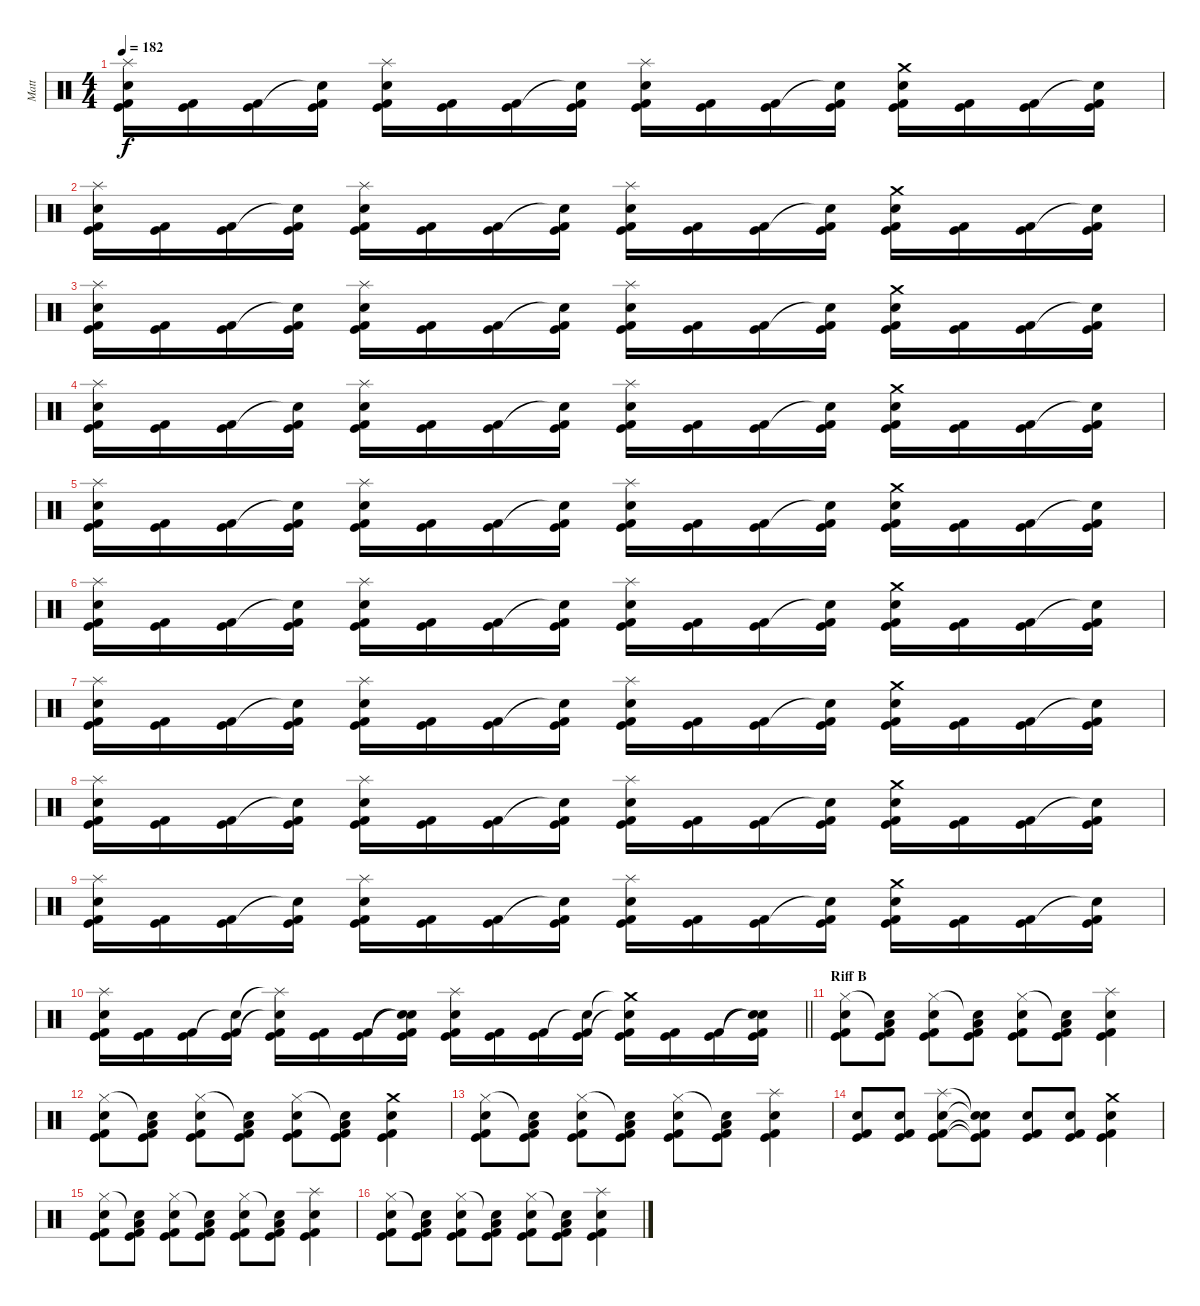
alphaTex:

\track ("Matt" "Matt") {instrument percussion}
\staff {score}
\articulation defaults
\ts (4 4)
\tempo 182
\clef neutral
\ks c
("Splash (hit)" "Electric Snare (hit)" "Kick (hit)" "Kick (hit) 2").16{dy f} ("Kick (hit)" "Kick (hit) 2").16 ("Kick (hit)" "Kick (hit) 2").16 ("Snare (hit)"{t} "Kick (hit)" "Kick (hit) 2").16 ("Splash (hit)" "Electric Snare (hit)" "Kick (hit)" "Kick (hit) 2").16 ("Kick (hit)" "Kick (hit) 2").16 ("Kick (hit)" "Kick (hit) 2").16 ("Snare (hit)"{t} "Kick (hit)" "Kick (hit) 2").16 ("Splash (hit)" "Electric Snare (hit)" "Kick (hit)" "Kick (hit) 2").16 ("Kick (hit)" "Kick (hit) 2").16 ("Kick (hit)" "Kick (hit) 2").16 ("Snare (hit)"{t} "Kick (hit)" "Kick (hit) 2").16 ("Crash medium (hit)" "Electric Snare (hit)" "Kick (hit)" "Kick (hit) 2").16 ("Kick (hit)" "Kick (hit) 2").16 ("Kick (hit)" "Kick (hit) 2").16 ("Snare (hit)"{t} "Kick (hit)" "Kick (hit) 2").16 |
("Splash (hit)" "Electric Snare (hit)" "Kick (hit)" "Kick (hit) 2").16 ("Kick (hit)" "Kick (hit) 2").16 ("Kick (hit)" "Kick (hit) 2").16 ("Snare (hit)"{t} "Kick (hit)" "Kick (hit) 2").16 ("Splash (hit)" "Electric Snare (hit)" "Kick (hit)" "Kick (hit) 2").16 ("Kick (hit)" "Kick (hit) 2").16 ("Kick (hit)" "Kick (hit) 2").16 ("Snare (hit)"{t} "Kick (hit)" "Kick (hit) 2").16 ("Splash (hit)" "Electric Snare (hit)" "Kick (hit)" "Kick (hit) 2").16 ("Kick (hit)" "Kick (hit) 2").16 ("Kick (hit)" "Kick (hit) 2").16 ("Snare (hit)"{t} "Kick (hit)" "Kick (hit) 2").16 ("Crash medium (hit)" "Electric Snare (hit)" "Kick (hit)" "Kick (hit) 2").16 ("Kick (hit)" "Kick (hit) 2").16 ("Kick (hit)" "Kick (hit) 2").16 ("Snare (hit)"{t} "Kick (hit)" "Kick (hit) 2").16 |
("Splash (hit)" "Electric Snare (hit)" "Kick (hit)" "Kick (hit) 2").16 ("Kick (hit)" "Kick (hit) 2").16 ("Kick (hit)" "Kick (hit) 2").16 ("Snare (hit)"{t} "Kick (hit)" "Kick (hit) 2").16 ("Splash (hit)" "Electric Snare (hit)" "Kick (hit)" "Kick (hit) 2").16 ("Kick (hit)" "Kick (hit) 2").16 ("Kick (hit)" "Kick (hit) 2").16 ("Snare (hit)"{t} "Kick (hit)" "Kick (hit) 2").16 ("Splash (hit)" "Electric Snare (hit)" "Kick (hit)" "Kick (hit) 2").16 ("Kick (hit)" "Kick (hit) 2").16 ("Kick (hit)" "Kick (hit) 2").16 ("Snare (hit)"{t} "Kick (hit)" "Kick (hit) 2").16 ("Crash medium (hit)" "Electric Snare (hit)" "Kick (hit)" "Kick (hit) 2").16 ("Kick (hit)" "Kick (hit) 2").16 ("Kick (hit)" "Kick (hit) 2").16 ("Snare (hit)"{t} "Kick (hit)" "Kick (hit) 2").16 |
("Splash (hit)" "Electric Snare (hit)" "Kick (hit)" "Kick (hit) 2").16 ("Kick (hit)" "Kick (hit) 2").16 ("Kick (hit)" "Kick (hit) 2").16 ("Snare (hit)"{t} "Kick (hit)" "Kick (hit) 2").16 ("Splash (hit)" "Electric Snare (hit)" "Kick (hit)" "Kick (hit) 2").16 ("Kick (hit)" "Kick (hit) 2").16 ("Kick (hit)" "Kick (hit) 2").16 ("Snare (hit)"{t} "Kick (hit)" "Kick (hit) 2").16 ("Splash (hit)" "Electric Snare (hit)" "Kick (hit)" "Kick (hit) 2").16 ("Kick (hit)" "Kick (hit) 2").16 ("Kick (hit)" "Kick (hit) 2").16 ("Snare (hit)"{t} "Kick (hit)" "Kick (hit) 2").16 ("Crash medium (hit)" "Electric Snare (hit)" "Kick (hit)" "Kick (hit) 2").16 ("Kick (hit)" "Kick (hit) 2").16 ("Kick (hit)" "Kick (hit) 2").16 ("Snare (hit)"{t} "Kick (hit)" "Kick (hit) 2").16 |
("Splash (hit)" "Electric Snare (hit)" "Kick (hit)" "Kick (hit) 2").16 ("Kick (hit)" "Kick (hit) 2").16 ("Kick (hit)" "Kick (hit) 2").16 ("Snare (hit)"{t} "Kick (hit)" "Kick (hit) 2").16 ("Splash (hit)" "Electric Snare (hit)" "Kick (hit)" "Kick (hit) 2").16 ("Kick (hit)" "Kick (hit) 2").16 ("Kick (hit)" "Kick (hit) 2").16 ("Snare (hit)"{t} "Kick (hit)" "Kick (hit) 2").16 ("Splash (hit)" "Electric Snare (hit)" "Kick (hit)" "Kick (hit) 2").16 ("Kick (hit)" "Kick (hit) 2").16 ("Kick (hit)" "Kick (hit) 2").16 ("Snare (hit)"{t} "Kick (hit)" "Kick (hit) 2").16 ("Crash medium (hit)" "Electric Snare (hit)" "Kick (hit)" "Kick (hit) 2").16 ("Kick (hit)" "Kick (hit) 2").16 ("Kick (hit)" "Kick (hit) 2").16 ("Snare (hit)"{t} "Kick (hit)" "Kick (hit) 2").16 |
("Splash (hit)" "Electric Snare (hit)" "Kick (hit)" "Kick (hit) 2").16 ("Kick (hit)" "Kick (hit) 2").16 ("Kick (hit)" "Kick (hit) 2").16 ("Snare (hit)"{t} "Kick (hit)" "Kick (hit) 2").16 ("Splash (hit)" "Electric Snare (hit)" "Kick (hit)" "Kick (hit) 2").16 ("Kick (hit)" "Kick (hit) 2").16 ("Kick (hit)" "Kick (hit) 2").16 ("Snare (hit)"{t} "Kick (hit)" "Kick (hit) 2").16 ("Splash (hit)" "Electric Snare (hit)" "Kick (hit)" "Kick (hit) 2").16 ("Kick (hit)" "Kick (hit) 2").16 ("Kick (hit)" "Kick (hit) 2").16 ("Snare (hit)"{t} "Kick (hit)" "Kick (hit) 2").16 ("Crash medium (hit)" "Electric Snare (hit)" "Kick (hit)" "Kick (hit) 2").16 ("Kick (hit)" "Kick (hit) 2").16 ("Kick (hit)" "Kick (hit) 2").16 ("Snare (hit)"{t} "Kick (hit)" "Kick (hit) 2").16 |
("Splash (hit)" "Electric Snare (hit)" "Kick (hit)" "Kick (hit) 2").16 ("Kick (hit)" "Kick (hit) 2").16 ("Kick (hit)" "Kick (hit) 2").16 ("Snare (hit)"{t} "Kick (hit)" "Kick (hit) 2").16 ("Splash (hit)" "Electric Snare (hit)" "Kick (hit)" "Kick (hit) 2").16 ("Kick (hit)" "Kick (hit) 2").16 ("Kick (hit)" "Kick (hit) 2").16 ("Snare (hit)"{t} "Kick (hit)" "Kick (hit) 2").16 ("Splash (hit)" "Electric Snare (hit)" "Kick (hit)" "Kick (hit) 2").16 ("Kick (hit)" "Kick (hit) 2").16 ("Kick (hit)" "Kick (hit) 2").16 ("Snare (hit)"{t} "Kick (hit)" "Kick (hit) 2").16 ("Crash medium (hit)" "Electric Snare (hit)" "Kick (hit)" "Kick (hit) 2").16 ("Kick (hit)" "Kick (hit) 2").16 ("Kick (hit)" "Kick (hit) 2").16 ("Snare (hit)"{t} "Kick (hit)" "Kick (hit) 2").16 |
("Splash (hit)" "Electric Snare (hit)" "Kick (hit)" "Kick (hit) 2").16 ("Kick (hit)" "Kick (hit) 2").16 ("Kick (hit)" "Kick (hit) 2").16 ("Snare (hit)"{t} "Kick (hit)" "Kick (hit) 2").16 ("Splash (hit)" "Electric Snare (hit)" "Kick (hit)" "Kick (hit) 2").16 ("Kick (hit)" "Kick (hit) 2").16 ("Kick (hit)" "Kick (hit) 2").16 ("Snare (hit)"{t} "Kick (hit)" "Kick (hit) 2").16 ("Splash (hit)" "Electric Snare (hit)" "Kick (hit)" "Kick (hit) 2").16 ("Kick (hit)" "Kick (hit) 2").16 ("Kick (hit)" "Kick (hit) 2").16 ("Snare (hit)"{t} "Kick (hit)" "Kick (hit) 2").16 ("Crash medium (hit)" "Electric Snare (hit)" "Kick (hit)" "Kick (hit) 2").16 ("Kick (hit)" "Kick (hit) 2").16 ("Kick (hit)" "Kick (hit) 2").16 ("Snare (hit)"{t} "Kick (hit)" "Kick (hit) 2").16 |
("Splash (hit)" "Electric Snare (hit)" "Kick (hit)" "Kick (hit) 2").16 ("Kick (hit)" "Kick (hit) 2").16 ("Kick (hit)" "Kick (hit) 2").16 ("Snare (hit)"{t} "Kick (hit)" "Kick (hit) 2").16 ("Splash (hit)" "Electric Snare (hit)" "Kick (hit)" "Kick (hit) 2").16 ("Kick (hit)" "Kick (hit) 2").16 ("Kick (hit)" "Kick (hit) 2").16 ("Snare (hit)"{t} "Kick (hit)" "Kick (hit) 2").16 ("Splash (hit)" "Electric Snare (hit)" "Kick (hit)" "Kick (hit) 2").16 ("Kick (hit)" "Kick (hit) 2").16 ("Kick (hit)" "Kick (hit) 2").16 ("Snare (hit)"{t} "Kick (hit)" "Kick (hit) 2").16 ("Crash medium (hit)" "Electric Snare (hit)" "Kick (hit)" "Kick (hit) 2").16 ("Kick (hit)" "Kick (hit) 2").16 ("Kick (hit)" "Kick (hit) 2").16 ("Snare (hit)"{t} "Kick (hit)" "Kick (hit) 2").16 |
\barLineRight lightlight
("Splash (hit)" "Electric Snare (hit)" "Kick (hit)" "Kick (hit) 2").16 ("Kick (hit)" "Kick (hit) 2").16 ("Kick (hit)" "Kick (hit) 2").16 ("Snare (hit)"{t} "Kick (hit)" "Kick (hit) 2").16 ("Splash (hit)"{t} "Electric Snare (hit)"{t} "Kick (hit)" "Kick (hit) 2").16 ("Kick (hit)" "Kick (hit) 2").16 ("Kick (hit)" "Kick (hit) 2").16 ("Snare (hit)"{t} "Snare (hit)"{t} "Kick (hit)" "Kick (hit) 2").16 ("Splash (hit)" "Electric Snare (hit)" "Kick (hit)" "Kick (hit) 2").16 ("Kick (hit)" "Kick (hit) 2").16 ("Kick (hit)" "Kick (hit) 2").16 ("Snare (hit)"{t} "Kick (hit)" "Kick (hit) 2").16 ("Crash medium (hit)"{t} "Electric Snare (hit)"{t} "Kick (hit)" "Kick (hit) 2").16 ("Kick (hit)" "Kick (hit) 2").16 ("Kick (hit)" "Kick (hit) 2").16 ("Snare (hit)"{t} "Snare (hit)"{t} "Kick (hit)" "Kick (hit) 2").16 |
\section ("" "Riff B")
("Hi-Hat (closed)" "Electric Snare (hit)" "Kick (hit)" "Kick (hit) 2").8 ("Snare (hit)"{t} "Low Floor Tom (hit)" "Kick (hit)" "Kick (hit) 2").8 ("Hi-Hat (closed)" "Electric Snare (hit)" "Kick (hit)" "Kick (hit) 2").8 ("Snare (hit)"{t} "Low Floor Tom (hit)" "Kick (hit)" "Kick (hit) 2").8 ("Hi-Hat (closed)" "Electric Snare (hit)" "Kick (hit)" "Kick (hit) 2").8 ("Snare (hit)"{t} "Low Floor Tom (hit)" "Kick (hit)" "Kick (hit) 2").8 ("Splash (hit)" "Electric Snare (hit)" "Kick (hit)" "Kick (hit) 2").4 |
("Hi-Hat (closed)" "Electric Snare (hit)" "Kick (hit)" "Kick (hit) 2").8 ("Snare (hit)"{t} "Low Floor Tom (hit)" "Kick (hit)" "Kick (hit) 2").8 ("Hi-Hat (closed)" "Electric Snare (hit)" "Kick (hit)" "Kick (hit) 2").8 ("Snare (hit)"{t} "Low Floor Tom (hit)" "Kick (hit)" "Kick (hit) 2").8 ("Hi-Hat (closed)" "Electric Snare (hit)" "Kick (hit)" "Kick (hit) 2").8 ("Snare (hit)"{t} "Low Floor Tom (hit)" "Kick (hit)" "Kick (hit) 2").8 ("Crash medium (hit)" "Electric Snare (hit)" "Kick (hit)" "Kick (hit) 2").4 |
("Hi-Hat (closed)" "Electric Snare (hit)" "Kick (hit)" "Kick (hit) 2").8 ("Snare (hit)"{t} "Low Floor Tom (hit)" "Kick (hit)" "Kick (hit) 2").8 ("Hi-Hat (closed)" "Electric Snare (hit)" "Kick (hit)" "Kick (hit) 2").8 ("Snare (hit)"{t} "Low Floor Tom (hit)" "Kick (hit)" "Kick (hit) 2").8 ("Hi-Hat (closed)" "Electric Snare (hit)" "Kick (hit)" "Kick (hit) 2").8 ("Snare (hit)"{t} "Low Floor Tom (hit)" "Kick (hit)" "Kick (hit) 2").8 ("Splash (hit)" "Electric Snare (hit)" "Kick (hit)" "Kick (hit) 2").4 |
("Electric Snare (hit)" "Kick (hit)" "Kick (hit) 2").8 ("Electric Snare (hit)" "Kick (hit)" "Kick (hit) 2").8 ("Splash (hit)" "Electric Snare (hit)" "Kick (hit)" "Kick (hit) 2").8 ("Snare (hit)"{t} "Electric Snare (hit)"{t} "Kick (hit)"{t} "Kick (hit) 2"{t}).8 ("Electric Snare (hit)" "Kick (hit)" "Kick (hit) 2").8 ("Electric Snare (hit)" "Kick (hit)" "Kick (hit) 2").8 ("Crash medium (hit)" "Electric Snare (hit)" "Kick (hit)" "Kick (hit) 2").4 |
("Hi-Hat (closed)" "Electric Snare (hit)" "Kick (hit)" "Kick (hit) 2").8 ("Snare (hit)"{t} "Low Floor Tom (hit)" "Kick (hit)" "Kick (hit) 2").8 ("Hi-Hat (closed)" "Electric Snare (hit)" "Kick (hit)" "Kick (hit) 2").8 ("Snare (hit)"{t} "Low Floor Tom (hit)" "Kick (hit)" "Kick (hit) 2").8 ("Hi-Hat (closed)" "Electric Snare (hit)" "Kick (hit)" "Kick (hit) 2").8 ("Snare (hit)"{t} "Low Floor Tom (hit)" "Kick (hit)" "Kick (hit) 2").8 ("Splash (hit)" "Electric Snare (hit)" "Kick (hit)" "Kick (hit) 2").4 |
("Hi-Hat (closed)" "Electric Snare (hit)" "Kick (hit)" "Kick (hit) 2").8 ("Snare (hit)"{t} "Low Floor Tom (hit)" "Kick (hit)" "Kick (hit) 2").8 ("Hi-Hat (closed)" "Electric Snare (hit)" "Kick (hit)" "Kick (hit) 2").8 ("Snare (hit)"{t} "Low Floor Tom (hit)" "Kick (hit)" "Kick (hit) 2").8 ("Hi-Hat (closed)" "Electric Snare (hit)" "Kick (hit)" "Kick (hit) 2").8 ("Snare (hit)"{t} "Low Floor Tom (hit)" "Kick (hit)" "Kick (hit) 2").8 ("Splash (hit)" "Electric Snare (hit)" "Kick (hit)" "Kick (hit) 2").4
